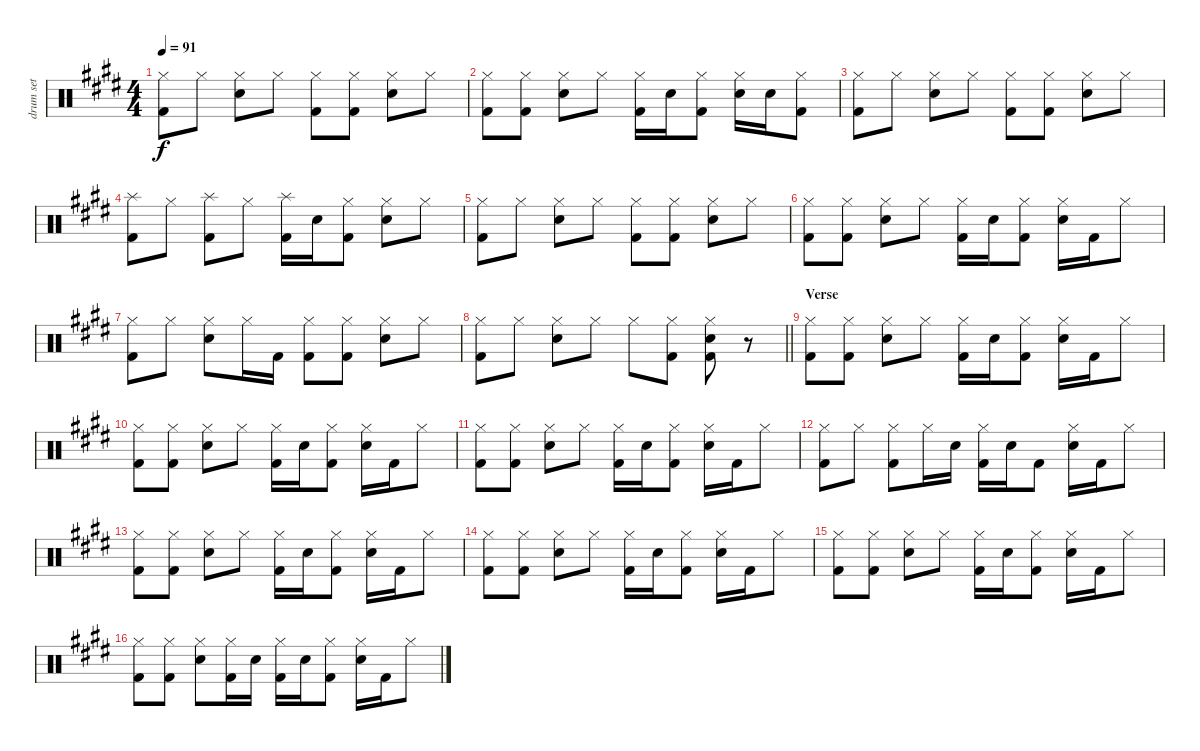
\track ("drum set" "drum set") {instrument percussion}
\staff {score}
\articulation defaults
\ts (4 4)
\tempo 91
\clef neutral
\ks c#minor
("Hi-Hat (closed)" "Kick (hit) 2").8{dy f} "Hi-Hat (closed)".8 ("Hi-Hat (closed)" "Hand Clap (hit)").8 "Hi-Hat (closed)".8 ("Hi-Hat (closed)" "Kick (hit) 2").8 ("Hi-Hat (closed)" "Kick (hit) 2").8 ("Hi-Hat (closed)" "Hand Clap (hit)").8 "Hi-Hat (closed)".8 |
("Hi-Hat (closed)" "Kick (hit) 2").8 ("Hi-Hat (closed)" "Kick (hit) 2").8 ("Hi-Hat (closed)" "Hand Clap (hit)").8 "Hi-Hat (closed)".8 ("Hi-Hat (closed)" "Kick (hit) 2").16 "Hand Clap (hit)".16 ("Hi-Hat (closed)" "Kick (hit) 2").8 ("Hi-Hat (closed)" "Hand Clap (hit)").16 "Hand Clap (hit)".16 ("Hi-Hat (closed)" "Kick (hit) 2").8 |
\ks e
("Hi-Hat (closed)" "Kick (hit) 2").8 "Hi-Hat (closed)".8 ("Hi-Hat (closed)" "Hand Clap (hit)").8 "Hi-Hat (closed)".8 ("Hi-Hat (closed)" "Kick (hit) 2").8 ("Hi-Hat (closed)" "Kick (hit) 2").8 ("Hi-Hat (closed)" "Hand Clap (hit)").8 "Hi-Hat (closed)".8 |
\ks c#minor
("Splash (hit)" "Kick (hit) 2").8 "Hi-Hat (closed)".8 ("Splash (hit)" "Kick (hit) 2").8 "Hi-Hat (closed)".8 ("Splash (hit)" "Kick (hit) 2").16 "Hand Clap (hit)".16 ("Hi-Hat (closed)" "Kick (hit) 2").8 ("Hi-Hat (closed)" "Hand Clap (hit)").8 "Hi-Hat (closed)".8 |
("Hi-Hat (closed)" "Kick (hit) 2").8 "Hi-Hat (closed)".8 ("Hi-Hat (closed)" "Hand Clap (hit)").8 "Hi-Hat (closed)".8 ("Hi-Hat (closed)" "Kick (hit) 2").8 ("Hi-Hat (closed)" "Kick (hit) 2").8 ("Hi-Hat (closed)" "Hand Clap (hit)").8 "Hi-Hat (closed)".8 |
("Hi-Hat (closed)" "Kick (hit) 2").8 ("Hi-Hat (closed)" "Kick (hit) 2").8 ("Hi-Hat (closed)" "Hand Clap (hit)").8 "Hi-Hat (closed)".8 ("Hi-Hat (closed)" "Kick (hit) 2").16 "Hand Clap (hit)".16 ("Hi-Hat (closed)" "Kick (hit) 2").8 ("Hi-Hat (closed)" "Hand Clap (hit)").16 "Kick (hit) 2".16 "Hi-Hat (closed)".8 |
\ks e
("Hi-Hat (closed)" "Kick (hit) 2").8 "Hi-Hat (closed)".8 ("Hi-Hat (closed)" "Hand Clap (hit)").8 "Hi-Hat (closed)".16 "Kick (hit) 2".16 ("Hi-Hat (closed)" "Kick (hit) 2").8 ("Hi-Hat (closed)" "Kick (hit) 2").8 ("Hi-Hat (closed)" "Hand Clap (hit)").8 "Hi-Hat (closed)".8 |
\barLineRight lightlight
\ks c#minor
("Hi-Hat (closed)" "Kick (hit) 2").8 "Hi-Hat (closed)".8 ("Hi-Hat (closed)" "Hand Clap (hit)").8 "Hi-Hat (closed)".8 "Hi-Hat (closed)".8 ("Hi-Hat (closed)" "Kick (hit) 2").8 ("Hi-Hat (closed)" "Hand Clap (hit)" "Kick (hit) 2").8 r.8 |
\section ("" "Verse")
\ks e
("Hi-Hat (closed)" "Kick (hit) 2").8 ("Hi-Hat (closed)" "Kick (hit) 2").8 ("Hi-Hat (closed)" "Hand Clap (hit)").8 "Hi-Hat (closed)".8 ("Hi-Hat (closed)" "Kick (hit) 2").16 "Hand Clap (hit)".16 ("Hi-Hat (closed)" "Kick (hit) 2").8 ("Hi-Hat (closed)" "Hand Clap (hit)").16 "Kick (hit) 2".16 "Hi-Hat (closed)".8 |
\ks c#minor
("Hi-Hat (closed)" "Kick (hit) 2").8 ("Hi-Hat (closed)" "Kick (hit) 2").8 ("Hi-Hat (closed)" "Hand Clap (hit)").8 "Hi-Hat (closed)".8 ("Hi-Hat (closed)" "Kick (hit) 2").16 "Hand Clap (hit)".16 ("Hi-Hat (closed)" "Kick (hit) 2").8 ("Hi-Hat (closed)" "Hand Clap (hit)").16 "Kick (hit) 2".16 "Hi-Hat (closed)".8 |
("Hi-Hat (closed)" "Kick (hit) 2").8 ("Hi-Hat (closed)" "Kick (hit) 2").8 ("Hi-Hat (closed)" "Hand Clap (hit)").8 "Hi-Hat (closed)".8 ("Hi-Hat (closed)" "Kick (hit) 2").16 "Hand Clap (hit)".16 ("Hi-Hat (closed)" "Kick (hit) 2").8 ("Hi-Hat (closed)" "Hand Clap (hit)").16 "Kick (hit) 2".16 "Hi-Hat (closed)".8 |
("Hi-Hat (closed)" "Kick (hit) 2").8 "Hi-Hat (closed)".8 ("Hi-Hat (closed)" "Kick (hit) 2").8 "Hi-Hat (closed)".16 "Hand Clap (hit)".16 ("Hi-Hat (closed)" "Kick (hit) 2").16 "Hand Clap (hit)".16 "Kick (hit) 2".8 ("Hi-Hat (closed)" "Hand Clap (hit)").16 "Kick (hit) 2".16 "Hi-Hat (closed)".8 |
\ks e
("Hi-Hat (closed)" "Kick (hit) 2").8 ("Hi-Hat (closed)" "Kick (hit) 2").8 ("Hi-Hat (closed)" "Hand Clap (hit)").8 "Hi-Hat (closed)".8 ("Hi-Hat (closed)" "Kick (hit) 2").16 "Hand Clap (hit)".16 ("Hi-Hat (closed)" "Kick (hit) 2").8 ("Hi-Hat (closed)" "Hand Clap (hit)").16 "Kick (hit) 2".16 "Hi-Hat (closed)".8 |
\ks c#minor
("Hi-Hat (closed)" "Kick (hit) 2").8 ("Hi-Hat (closed)" "Kick (hit) 2").8 ("Hi-Hat (closed)" "Hand Clap (hit)").8 "Hi-Hat (closed)".8 ("Hi-Hat (closed)" "Kick (hit) 2").16 "Hand Clap (hit)".16 ("Hi-Hat (closed)" "Kick (hit) 2").8 ("Hi-Hat (closed)" "Hand Clap (hit)").16 "Kick (hit) 2".16 "Hi-Hat (closed)".8 |
("Hi-Hat (closed)" "Kick (hit) 2").8 ("Hi-Hat (closed)" "Kick (hit) 2").8 ("Hi-Hat (closed)" "Hand Clap (hit)").8 "Hi-Hat (closed)".8 ("Hi-Hat (closed)" "Kick (hit) 2").16 "Hand Clap (hit)".16 ("Hi-Hat (closed)" "Kick (hit) 2").8 ("Hi-Hat (closed)" "Hand Clap (hit)").16 "Kick (hit) 2".16 "Hi-Hat (closed)".8 |
("Hi-Hat (closed)" "Kick (hit) 2").8 ("Hi-Hat (closed)" "Kick (hit) 2").8 ("Hi-Hat (closed)" "Hand Clap (hit)").8 ("Hi-Hat (closed)" "Kick (hit) 2").16 "Hand Clap (hit)".16 ("Hi-Hat (closed)" "Kick (hit) 2").16 "Hand Clap (hit)".16 ("Hi-Hat (closed)" "Kick (hit) 2").8 ("Hi-Hat (closed)" "Hand Clap (hit)").16 "Kick (hit) 2".16 "Hi-Hat (closed)".8
